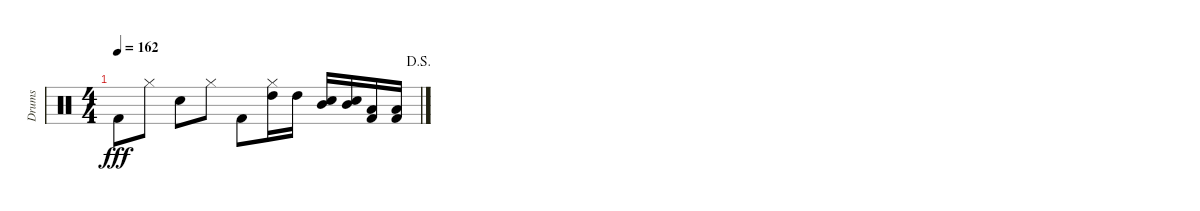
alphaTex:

\track ("Drums" "Drums") {instrument percussion}
\staff {score}
\articulation defaults
\ts (4 4)
\jump dalsegno
\tempo 162
\clef neutral
\ks c "Kick (hit) 2".8{dy fff} "Hi-Hat (closed)".8 "Electric Snare (hit)".8 "Hi-Hat (closed)".8 "Kick (hit) 2".8
("Hi-Hat (closed)" "High Tom (hit)").16 "High Tom (hit)".16 ("Mid Tom (hit)" "Electric Snare (hit)").16 ("Mid Tom (hit)" "Electric Snare (hit)").16 ("Low Tom (hit)" "Kick (hit) 2").16 ("Low Tom (hit)" "Kick (hit) 2").16
